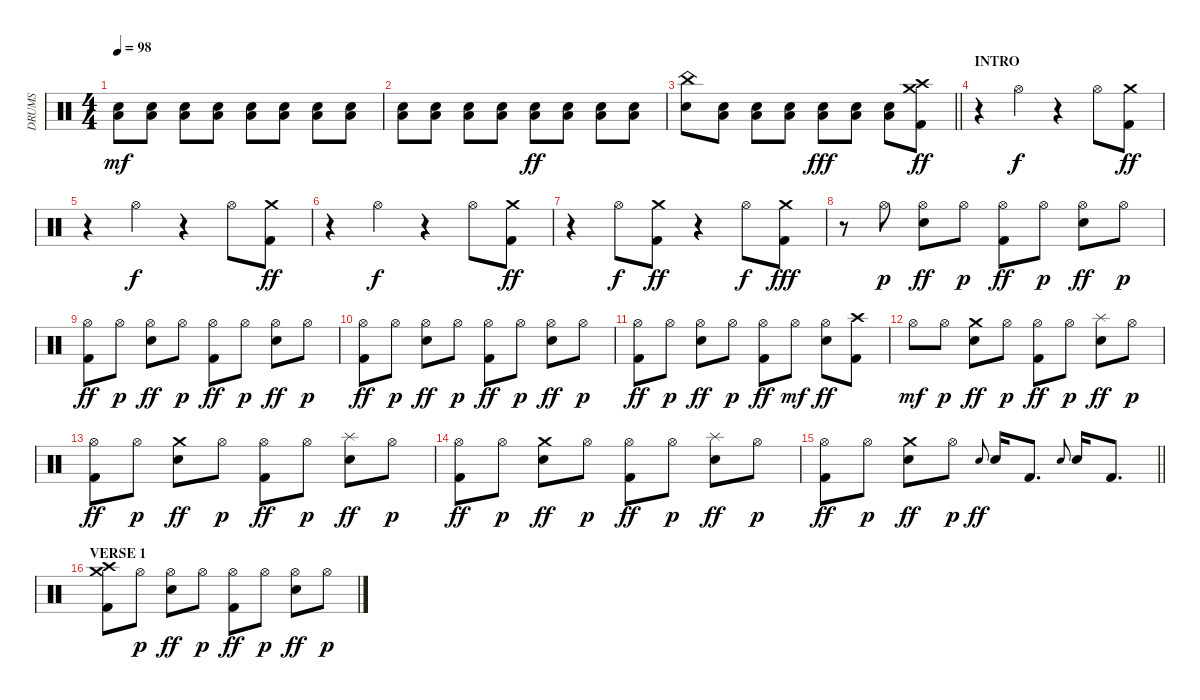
\track ("DRUMS" "DRUMS") {instrument percussion}
\staff {score}
\articulation defaults
\ts (4 4)
\tempo 98
\clef neutral
\ks c
("Snare (hit) 2" "Low Floor Tom (hit)").8{dy mf} ("Snare (hit) 2" "Low Floor Tom (hit)").8 ("Snare (hit) 2" "Low Floor Tom (hit)").8 ("Snare (hit) 2" "Low Floor Tom (hit)").8 ("Snare (hit) 2" "Low Floor Tom (hit)").8 ("Snare (hit) 2" "Low Floor Tom (hit)").8 ("Snare (hit) 2" "Low Floor Tom (hit)").8 ("Snare (hit) 2" "Low Floor Tom (hit)").8 |
("Snare (hit) 2" "Low Floor Tom (hit)").8 ("Snare (hit) 2" "Low Floor Tom (hit)").8 ("Snare (hit) 2" "Low Floor Tom (hit)").8 ("Snare (hit) 2" "Low Floor Tom (hit)").8 ("Snare (hit) 2" "Low Floor Tom (hit)").8{dy ff} ("Snare (hit) 2" "Low Floor Tom (hit)").8 ("Snare (hit) 2" "Low Floor Tom (hit)").8 ("Snare (hit) 2" "Low Floor Tom (hit)").8 |
\barLineRight lightlight
("China (hit)" "Snare (hit) 2").8 ("Snare (hit) 2" "Low Floor Tom (hit)").8 ("Snare (hit) 2" "Low Floor Tom (hit)").8 ("Snare (hit) 2" "Low Floor Tom (hit)").8 ("Snare (hit) 2" "Low Floor Tom (hit)").8{dy fff} ("Snare (hit) 2" "Low Floor Tom (hit)").8 ("Snare (hit) 2" "Low Floor Tom (hit)").8 ("Crash medium (hit)" "Crash high (hit)" "Kick (hit) 2").8{dy ff} |
\section ("" "INTRO")
r.4 "Hi-Hat (open)".4{dy f} r.4 "Hi-Hat (open)".8 ("Crash medium (hit)" "Kick (hit) 2").8{dy ff} |
r.4 "Hi-Hat (open)".4{dy f} r.4 "Hi-Hat (open)".8 ("Crash medium (hit)" "Kick (hit) 2").8{dy ff} |
r.4 "Hi-Hat (open)".4{dy f} r.4 "Hi-Hat (open)".8 ("Crash medium (hit)" "Kick (hit) 2").8{dy ff} |
r.4 "Hi-Hat (open)".8{dy f} ("Crash medium (hit)" "Kick (hit) 2").8{dy ff} r.4 "Hi-Hat (open)".8{dy f} ("Crash medium (hit)" "Kick (hit) 2").8{dy fff} |
r.8 "Hi-Hat (open)".8{dy p} ("Hi-Hat (open)" "Snare (hit) 2").8{dy ff} "Hi-Hat (open)".8{dy p} ("Hi-Hat (open)" "Kick (hit) 2").8{dy ff} "Hi-Hat (open)".8{dy p} ("Hi-Hat (open)" "Snare (hit) 2").8{dy ff} "Hi-Hat (open)".8{dy p} |
("Hi-Hat (open)" "Kick (hit) 2").8{dy ff} "Hi-Hat (open)".8{dy p} ("Hi-Hat (open)" "Snare (hit) 2").8{dy ff} "Hi-Hat (open)".8{dy p} ("Hi-Hat (open)" "Kick (hit) 2").8{dy ff} "Hi-Hat (open)".8{dy p} ("Hi-Hat (open)" "Snare (hit) 2").8{dy ff} "Hi-Hat (open)".8{dy p} |
("Hi-Hat (open)" "Kick (hit) 2").8{dy ff} "Hi-Hat (open)".8{dy p} ("Hi-Hat (open)" "Snare (hit) 2").8{dy ff} "Hi-Hat (open)".8{dy p} ("Hi-Hat (open)" "Kick (hit) 2").8{dy ff} "Hi-Hat (open)".8{dy p} ("Hi-Hat (open)" "Snare (hit) 2").8{dy ff} "Hi-Hat (open)".8{dy p} |
("Hi-Hat (open)" "Kick (hit) 2").8{dy ff} "Hi-Hat (open)".8{dy p} ("Hi-Hat (open)" "Snare (hit) 2").8{dy ff} "Hi-Hat (open)".8{dy p} ("Hi-Hat (open)" "Kick (hit) 2").8{dy ff} "Hi-Hat (open)".8{dy mf} ("Hi-Hat (open)" "Snare (hit) 2").8{dy ff} ("Crash high (hit)" "Kick (hit) 2").8 |
"Hi-Hat (open)".8{dy mf} "Hi-Hat (open)".8{dy p} ("Crash medium (hit)" "Snare (hit) 2").8{dy ff} "Hi-Hat (open)".8{dy p} ("Hi-Hat (open)" "Kick (hit) 2").8{dy ff} "Hi-Hat (open)".8{dy p} ("Splash (hit)" "Snare (hit) 2").8{dy ff} "Hi-Hat (open)".8{dy p} |
("Hi-Hat (open)" "Kick (hit) 2").8{dy ff} "Hi-Hat (open)".8{dy p} ("Crash medium (hit)" "Snare (hit) 2").8{dy ff} "Hi-Hat (open)".8{dy p} ("Hi-Hat (open)" "Kick (hit) 2").8{dy ff} "Hi-Hat (open)".8{dy p} ("Splash (hit)" "Snare (hit) 2").8{dy ff} "Hi-Hat (open)".8{dy p} |
("Hi-Hat (open)" "Kick (hit) 2").8{dy ff} "Hi-Hat (open)".8{dy p} ("Crash medium (hit)" "Snare (hit) 2").8{dy ff} "Hi-Hat (open)".8{dy p} ("Hi-Hat (open)" "Kick (hit) 2").8{dy ff} "Hi-Hat (open)".8{dy p} ("Splash (hit)" "Snare (hit) 2").8{dy ff} "Hi-Hat (open)".8{dy p} |
\barLineRight lightlight
("Hi-Hat (open)" "Kick (hit) 2").8{dy ff} "Hi-Hat (open)".8{dy p} ("Crash medium (hit)" "Snare (hit) 2").8{dy ff} "Hi-Hat (open)".8{dy p} "Snare (hit) 2".8{gr onbeat dy ff} "Snare (hit) 2".16 "Kick (hit) 2".8{d} "Snare (hit) 2".8{gr onbeat} "Snare (hit) 2".16 "Kick (hit) 2".8{d} |
\section ("" "VERSE 1")
("Crash high (hit)" "Crash medium (hit)" "Kick (hit) 2").8 "Hi-Hat (open)".8{dy p} ("Hi-Hat (open)" "Snare (hit) 2").8{dy ff} "Hi-Hat (open)".8{dy p} ("Hi-Hat (open)" "Kick (hit) 2").8{dy ff} "Hi-Hat (open)".8{dy p} ("Hi-Hat (open)" "Snare (hit) 2").8{dy ff} "Hi-Hat (open)".8{dy p}
